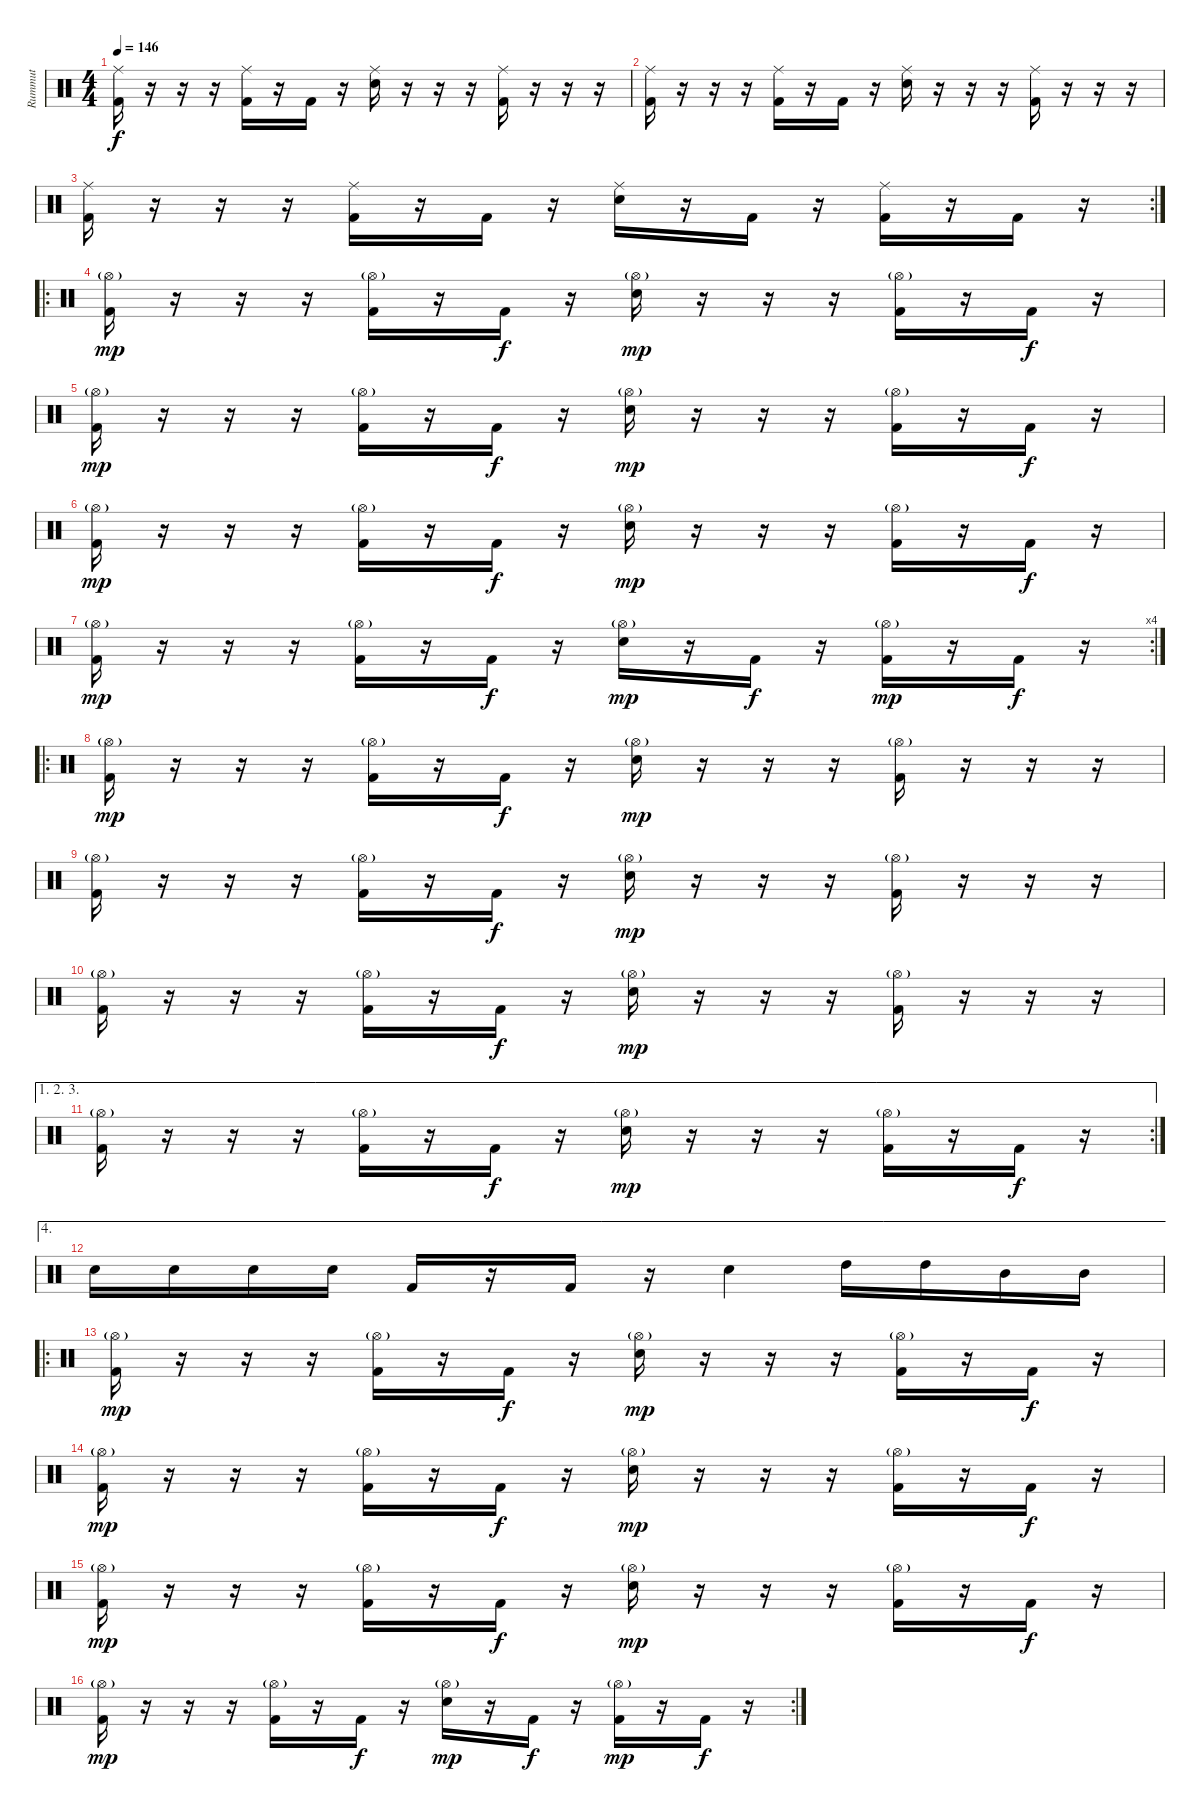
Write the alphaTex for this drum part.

\track ("Rummut" "Rummut") {instrument percussion}
\staff {score}
\articulation defaults
\ts (4 4)
\tempo 146
\clef neutral
\ks c
("Ride (middle)" "Kick (hit) 2").16{dy f} r.16 r.16 r.16 ("Ride (middle)" "Kick (hit) 2").16 r.16 "Kick (hit) 2".16 r.16 ("Ride (middle)" "Electric Snare (hit)").16 r.16 r.16 r.16 ("Ride (middle)" "Kick (hit) 2").16 r.16 r.16 r.16 |
("Ride (middle)" "Kick (hit) 2").16 r.16 r.16 r.16 ("Ride (middle)" "Kick (hit) 2").16 r.16 "Kick (hit) 2".16 r.16 ("Ride (middle)" "Electric Snare (hit)").16 r.16 r.16 r.16 ("Ride (middle)" "Kick (hit) 2").16 r.16 r.16 r.16 |
\rc 2
("Ride (middle)" "Kick (hit) 2").16 r.16 r.16 r.16 ("Ride (middle)" "Kick (hit) 2").16 r.16 "Kick (hit) 2".16 r.16 ("Ride (middle)" "Electric Snare (hit)").16 r.16 "Kick (hit) 2".16 r.16 ("Ride (middle)" "Kick (hit) 2").16 r.16 "Kick (hit) 2".16 r.16 |
\ro
\section ("" "")
("Hi-Hat (open)"{g} "Kick (hit) 2").16{dy mp} r.16 r.16 r.16 ("Hi-Hat (open)"{g} "Kick (hit) 2").16 r.16 "Kick (hit) 2".16{dy f} r.16 ("Hi-Hat (open)"{g} "Electric Snare (hit)").16{dy mp} r.16 r.16 r.16 ("Hi-Hat (open)"{g} "Kick (hit) 2").16 r.16 "Kick (hit) 2".16{dy f} r.16 |
("Hi-Hat (open)"{g} "Kick (hit) 2").16{dy mp} r.16 r.16 r.16 ("Hi-Hat (open)"{g} "Kick (hit) 2").16 r.16 "Kick (hit) 2".16{dy f} r.16 ("Hi-Hat (open)"{g} "Electric Snare (hit)").16{dy mp} r.16 r.16 r.16 ("Hi-Hat (open)"{g} "Kick (hit) 2").16 r.16 "Kick (hit) 2".16{dy f} r.16 |
("Hi-Hat (open)"{g} "Kick (hit) 2").16{dy mp} r.16 r.16 r.16 ("Hi-Hat (open)"{g} "Kick (hit) 2").16 r.16 "Kick (hit) 2".16{dy f} r.16 ("Hi-Hat (open)"{g} "Electric Snare (hit)").16{dy mp} r.16 r.16 r.16 ("Hi-Hat (open)"{g} "Kick (hit) 2").16 r.16 "Kick (hit) 2".16{dy f} r.16 |
\rc 4
("Hi-Hat (open)"{g} "Kick (hit) 2").16{dy mp} r.16 r.16 r.16 ("Hi-Hat (open)"{g} "Kick (hit) 2").16 r.16 "Kick (hit) 2".16{dy f} r.16 ("Hi-Hat (open)"{g} "Electric Snare (hit)").16{dy mp} r.16 "Kick (hit) 2".16{dy f} r.16 ("Hi-Hat (open)"{g} "Kick (hit) 2").16{dy mp} r.16 "Kick (hit) 2".16{dy f} r.16 |
\ro
\section ("" "")
("Hi-Hat (open)"{g} "Kick (hit) 2").16{dy mp} r.16 r.16 r.16 ("Hi-Hat (open)"{g} "Kick (hit) 2").16 r.16 "Kick (hit) 2".16{dy f} r.16 ("Hi-Hat (open)"{g} "Electric Snare (hit)").16{dy mp} r.16 r.16 r.16 ("Hi-Hat (open)"{g} "Kick (hit) 2").16 r.16 r.16 r.16 |
("Hi-Hat (open)"{g} "Kick (hit) 2").16 r.16 r.16 r.16 ("Hi-Hat (open)"{g} "Kick (hit) 2").16 r.16 "Kick (hit) 2".16{dy f} r.16 ("Hi-Hat (open)"{g} "Electric Snare (hit)").16{dy mp} r.16 r.16 r.16 ("Hi-Hat (open)"{g} "Kick (hit) 2").16 r.16 r.16 r.16 |
("Hi-Hat (open)"{g} "Kick (hit) 2").16 r.16 r.16 r.16 ("Hi-Hat (open)"{g} "Kick (hit) 2").16 r.16 "Kick (hit) 2".16{dy f} r.16 ("Hi-Hat (open)"{g} "Electric Snare (hit)").16{dy mp} r.16 r.16 r.16 ("Hi-Hat (open)"{g} "Kick (hit) 2").16 r.16 r.16 r.16 |
\ae (1 2 3)
\rc 2
("Hi-Hat (open)"{g} "Kick (hit) 2").16 r.16 r.16 r.16 ("Hi-Hat (open)"{g} "Kick (hit) 2").16 r.16 "Kick (hit) 2".16{dy f} r.16 ("Hi-Hat (open)"{g} "Electric Snare (hit)").16{dy mp} r.16 r.16 r.16 ("Hi-Hat (open)"{g} "Kick (hit) 2").16 r.16 "Kick (hit) 2".16{dy f} r.16 |
\ae 4 "Electric Snare (hit)".16 "Electric Snare (hit)".16 "Electric Snare (hit)".16 "Electric Snare (hit)".16 "Kick (hit) 2".16
r.16 "Kick (hit) 2".16 r.16 "Electric Snare (hit)".4 "High Tom (hit)".16 "High Tom (hit)".16 "Mid Tom (hit)".16 "Mid Tom (hit)".16 |
\ro
\section ("" "")
("Hi-Hat (open)"{g} "Kick (hit) 2").16{dy mp} r.16 r.16 r.16 ("Hi-Hat (open)"{g} "Kick (hit) 2").16 r.16 "Kick (hit) 2".16{dy f} r.16 ("Hi-Hat (open)"{g} "Electric Snare (hit)").16{dy mp} r.16 r.16 r.16 ("Hi-Hat (open)"{g} "Kick (hit) 2").16 r.16 "Kick (hit) 2".16{dy f} r.16 |
("Hi-Hat (open)"{g} "Kick (hit) 2").16{dy mp} r.16 r.16 r.16 ("Hi-Hat (open)"{g} "Kick (hit) 2").16 r.16 "Kick (hit) 2".16{dy f} r.16 ("Hi-Hat (open)"{g} "Electric Snare (hit)").16{dy mp} r.16 r.16 r.16 ("Hi-Hat (open)"{g} "Kick (hit) 2").16 r.16 "Kick (hit) 2".16{dy f} r.16 |
("Hi-Hat (open)"{g} "Kick (hit) 2").16{dy mp} r.16 r.16 r.16 ("Hi-Hat (open)"{g} "Kick (hit) 2").16 r.16 "Kick (hit) 2".16{dy f} r.16 ("Hi-Hat (open)"{g} "Electric Snare (hit)").16{dy mp} r.16 r.16 r.16 ("Hi-Hat (open)"{g} "Kick (hit) 2").16 r.16 "Kick (hit) 2".16{dy f} r.16 |
\rc 2
("Hi-Hat (open)"{g} "Kick (hit) 2").16{dy mp} r.16 r.16 r.16 ("Hi-Hat (open)"{g} "Kick (hit) 2").16 r.16 "Kick (hit) 2".16{dy f} r.16 ("Hi-Hat (open)"{g} "Electric Snare (hit)").16{dy mp} r.16 "Kick (hit) 2".16{dy f} r.16 ("Hi-Hat (open)"{g} "Kick (hit) 2").16{dy mp} r.16 "Kick (hit) 2".16{dy f} r.16
